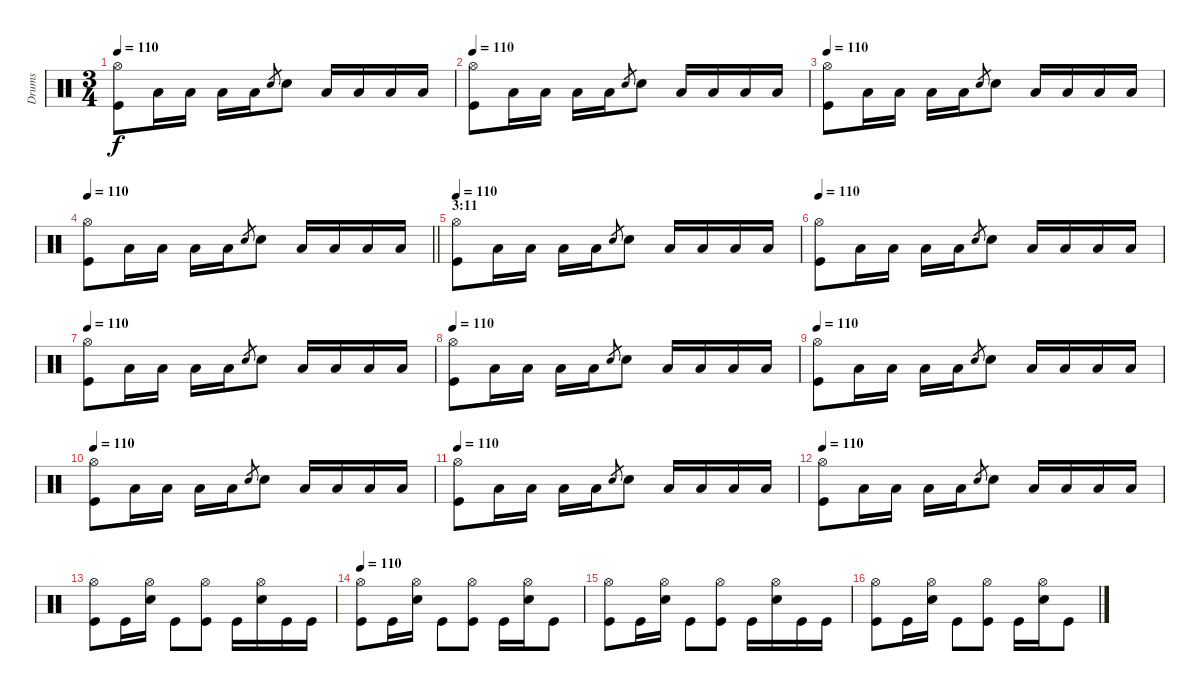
\track ("Drums" "Drums") {instrument percussion}
\staff {score}
\articulation defaults
\ts (3 4)
\tempo 110
\clef neutral
\ks c
("Hi-Hat (open)" "Kick (hit)").8{dy f} "Low Floor Tom (hit)".16 "Low Floor Tom (hit)".16 "Low Floor Tom (hit)".16 "Low Floor Tom (hit)".16 "Electric Snare (hit)".8{gr} "Electric Snare (hit)".8 "Low Floor Tom (hit)".16 "Low Floor Tom (hit)".16 "Low Floor Tom (hit)".16 "Low Floor Tom (hit)".16 |
\tempo 110
("Hi-Hat (open)" "Kick (hit)").8 "Low Floor Tom (hit)".16 "Low Floor Tom (hit)".16 "Low Floor Tom (hit)".16 "Low Floor Tom (hit)".16 "Electric Snare (hit)".8{gr} "Electric Snare (hit)".8 "Low Floor Tom (hit)".16 "Low Floor Tom (hit)".16 "Low Floor Tom (hit)".16 "Low Floor Tom (hit)".16 |
\tempo 110
("Hi-Hat (open)" "Kick (hit)").8 "Low Floor Tom (hit)".16 "Low Floor Tom (hit)".16 "Low Floor Tom (hit)".16 "Low Floor Tom (hit)".16 "Electric Snare (hit)".8{gr} "Electric Snare (hit)".8 "Low Floor Tom (hit)".16 "Low Floor Tom (hit)".16 "Low Floor Tom (hit)".16 "Low Floor Tom (hit)".16 |
\tempo 110
\barLineRight lightlight
("Hi-Hat (open)" "Kick (hit)").8 "Low Floor Tom (hit)".16 "Low Floor Tom (hit)".16 "Low Floor Tom (hit)".16 "Low Floor Tom (hit)".16 "Electric Snare (hit)".8{gr} "Electric Snare (hit)".8 "Low Floor Tom (hit)".16 "Low Floor Tom (hit)".16 "Low Floor Tom (hit)".16 "Low Floor Tom (hit)".16 |
\section ("" "3:11")
\tempo 110
("Hi-Hat (open)" "Kick (hit)").8 "Low Floor Tom (hit)".16 "Low Floor Tom (hit)".16 "Low Floor Tom (hit)".16 "Low Floor Tom (hit)".16 "Electric Snare (hit)".8{gr} "Electric Snare (hit)".8 "Low Floor Tom (hit)".16 "Low Floor Tom (hit)".16 "Low Floor Tom (hit)".16 "Low Floor Tom (hit)".16 |
\tempo 110
("Hi-Hat (open)" "Kick (hit)").8 "Low Floor Tom (hit)".16 "Low Floor Tom (hit)".16 "Low Floor Tom (hit)".16 "Low Floor Tom (hit)".16 "Electric Snare (hit)".8{gr} "Electric Snare (hit)".8 "Low Floor Tom (hit)".16 "Low Floor Tom (hit)".16 "Low Floor Tom (hit)".16 "Low Floor Tom (hit)".16 |
\tempo 110
("Hi-Hat (open)" "Kick (hit)").8 "Low Floor Tom (hit)".16 "Low Floor Tom (hit)".16 "Low Floor Tom (hit)".16 "Low Floor Tom (hit)".16 "Electric Snare (hit)".8{gr} "Electric Snare (hit)".8 "Low Floor Tom (hit)".16 "Low Floor Tom (hit)".16 "Low Floor Tom (hit)".16 "Low Floor Tom (hit)".16 |
\tempo 110
("Hi-Hat (open)" "Kick (hit)").8 "Low Floor Tom (hit)".16 "Low Floor Tom (hit)".16 "Low Floor Tom (hit)".16 "Low Floor Tom (hit)".16 "Electric Snare (hit)".8{gr} "Electric Snare (hit)".8 "Low Floor Tom (hit)".16 "Low Floor Tom (hit)".16 "Low Floor Tom (hit)".16 "Low Floor Tom (hit)".16 |
\tempo 110
("Hi-Hat (open)" "Kick (hit)").8 "Low Floor Tom (hit)".16 "Low Floor Tom (hit)".16 "Low Floor Tom (hit)".16 "Low Floor Tom (hit)".16 "Electric Snare (hit)".8{gr} "Electric Snare (hit)".8 "Low Floor Tom (hit)".16 "Low Floor Tom (hit)".16 "Low Floor Tom (hit)".16 "Low Floor Tom (hit)".16 |
\tempo 110
("Hi-Hat (open)" "Kick (hit)").8 "Low Floor Tom (hit)".16 "Low Floor Tom (hit)".16 "Low Floor Tom (hit)".16 "Low Floor Tom (hit)".16 "Electric Snare (hit)".8{gr} "Electric Snare (hit)".8 "Low Floor Tom (hit)".16 "Low Floor Tom (hit)".16 "Low Floor Tom (hit)".16 "Low Floor Tom (hit)".16 |
\tempo 110
("Hi-Hat (open)" "Kick (hit)").8 "Low Floor Tom (hit)".16 "Low Floor Tom (hit)".16 "Low Floor Tom (hit)".16 "Low Floor Tom (hit)".16 "Electric Snare (hit)".8{gr} "Electric Snare (hit)".8 "Low Floor Tom (hit)".16 "Low Floor Tom (hit)".16 "Low Floor Tom (hit)".16 "Low Floor Tom (hit)".16 |
\tempo 110
("Hi-Hat (open)" "Kick (hit)").8 "Low Floor Tom (hit)".16 "Low Floor Tom (hit)".16 "Low Floor Tom (hit)".16 "Low Floor Tom (hit)".16 "Electric Snare (hit)".8{gr} "Electric Snare (hit)".8 "Low Floor Tom (hit)".16 "Low Floor Tom (hit)".16 "Low Floor Tom (hit)".16 "Low Floor Tom (hit)".16 |
("Hi-Hat (open)" "Kick (hit)").8 "Kick (hit)".16 ("Electric Snare (hit)" "Hi-Hat (open)").16 "Kick (hit)".8 ("Hi-Hat (open)" "Kick (hit)").8 "Kick (hit)".16 ("Electric Snare (hit)" "Hi-Hat (open)").16 "Kick (hit)".16 "Kick (hit)".16 |
\tempo 110
("Hi-Hat (open)" "Kick (hit)").8 "Kick (hit)".16 ("Electric Snare (hit)" "Hi-Hat (open)").16 "Kick (hit)".8 ("Hi-Hat (open)" "Kick (hit)").8 "Kick (hit)".16 ("Electric Snare (hit)" "Hi-Hat (open)").16 "Kick (hit)".8 |
("Hi-Hat (open)" "Kick (hit)").8 "Kick (hit)".16 ("Electric Snare (hit)" "Hi-Hat (open)").16 "Kick (hit)".8 ("Hi-Hat (open)" "Kick (hit)").8 "Kick (hit)".16 ("Electric Snare (hit)" "Hi-Hat (open)").16 "Kick (hit)".16 "Kick (hit)".16 |
("Hi-Hat (open)" "Kick (hit)").8 "Kick (hit)".16 ("Electric Snare (hit)" "Hi-Hat (open)").16 "Kick (hit)".8 ("Hi-Hat (open)" "Kick (hit)").8 "Kick (hit)".16 ("Electric Snare (hit)" "Hi-Hat (open)").16 "Kick (hit)".8
